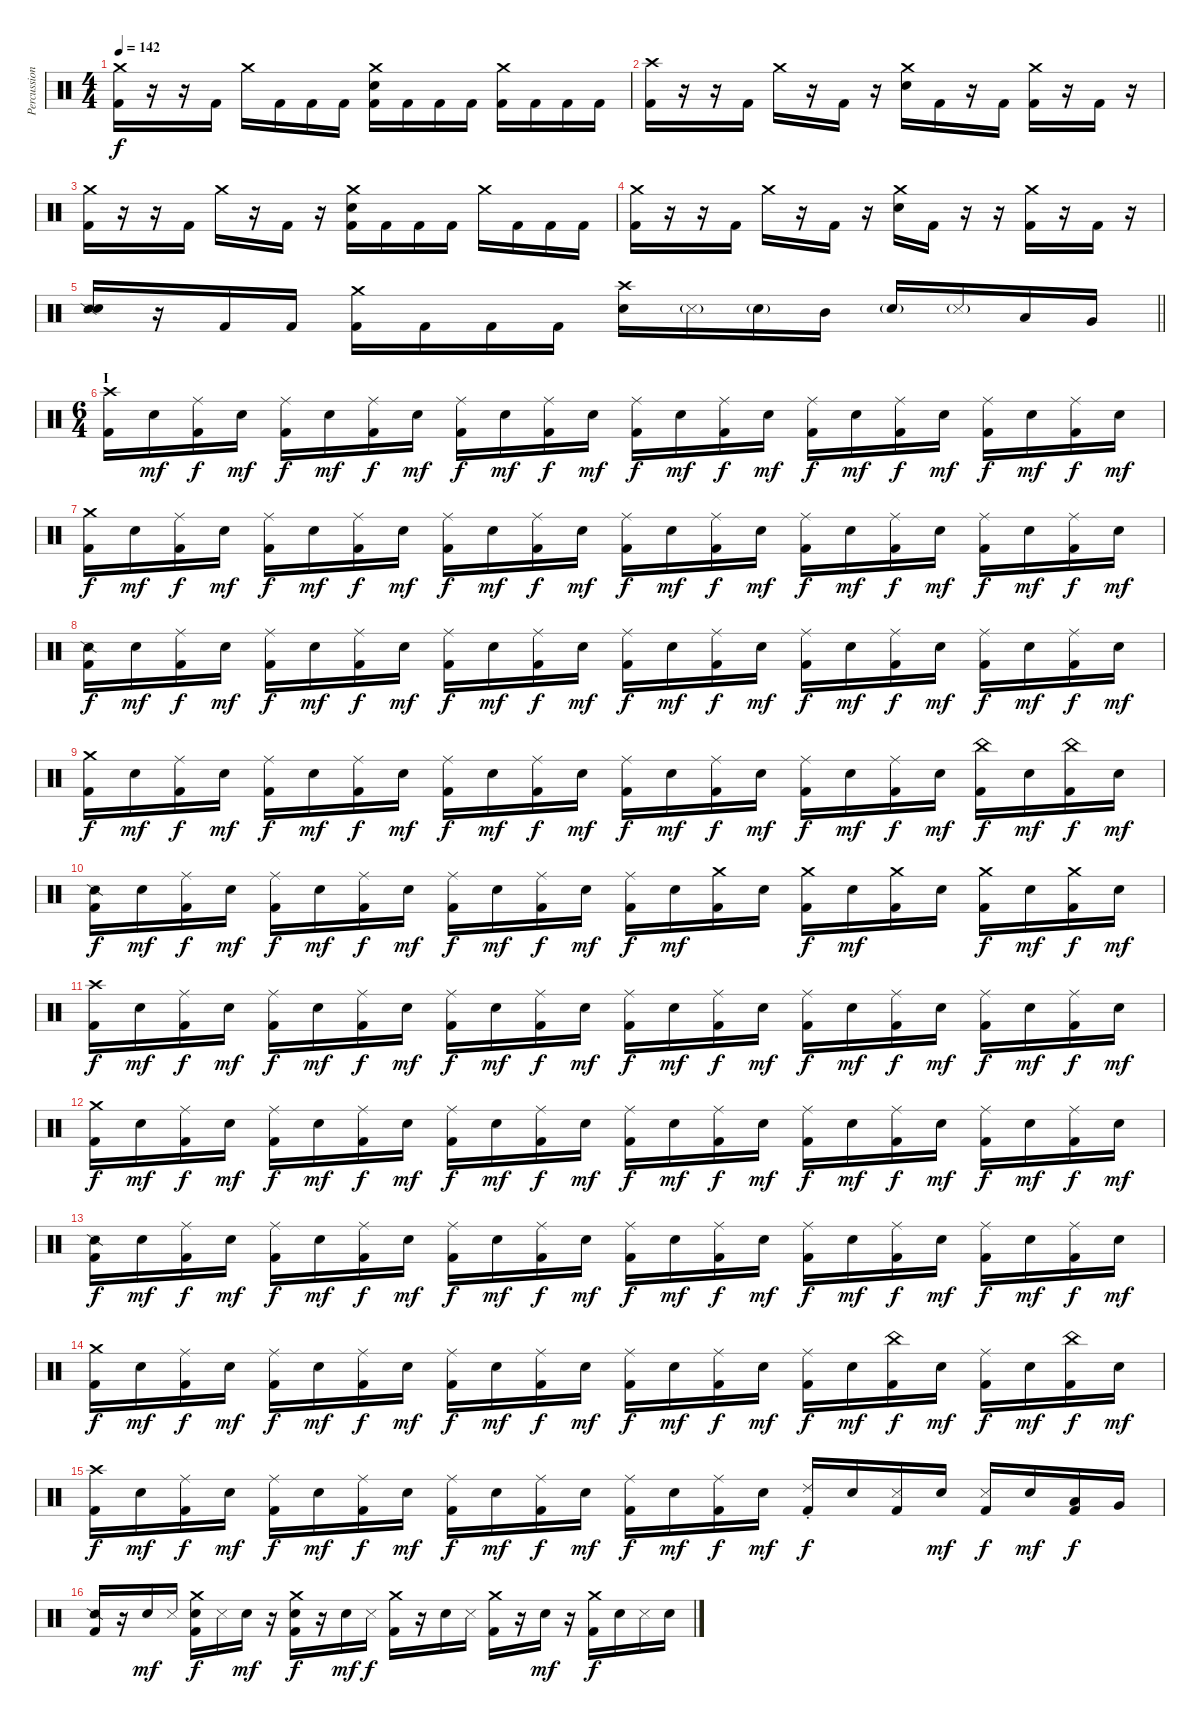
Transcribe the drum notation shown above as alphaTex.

\track ("Percussion" "Percussion") {instrument percussion}
\staff {score}
\articulation defaults
\ts (4 4)
\tempo 142
\clef neutral
\ks c
("Crash medium (hit)" "Kick (hit) 2").16{dy f} r.16 r.16 "Kick (hit) 2".16 "Crash medium (hit)".16 "Kick (hit) 2".16 "Kick (hit) 2".16 "Kick (hit) 2".16 ("Crash medium (hit)" "Snare (hit) 2" "Kick (hit) 2").16 "Kick (hit) 2".16 "Kick (hit) 2".16 "Kick (hit) 2".16 ("Crash medium (hit)" "Kick (hit) 2").16 "Kick (hit) 2".16 "Kick (hit) 2".16 "Kick (hit) 2".16 |
("Crash high (hit)" "Kick (hit) 2").16 r.16 r.16 "Kick (hit) 2".16 "Crash medium (hit)".16 r.16 "Kick (hit) 2".16 r.16 ("Crash medium (hit)" "Snare (hit) 2").16 "Kick (hit) 2".16 r.16 "Kick (hit) 2".16 ("Crash medium (hit)" "Kick (hit) 2").16 r.16 "Kick (hit) 2".16 r.16 |
("Crash medium (hit)" "Kick (hit) 2").16 r.16 r.16 "Kick (hit) 2".16 "Crash medium (hit)".16 r.16 "Kick (hit) 2".16 r.16 ("Crash medium (hit)" "Snare (hit) 2" "Kick (hit) 2").16 "Kick (hit) 2".16 "Kick (hit) 2".16 "Kick (hit) 2".16 "Crash medium (hit)".16 "Kick (hit) 2".16 "Kick (hit) 2".16 "Kick (hit) 2".16 |
("Crash medium (hit)" "Kick (hit) 2").16 r.16 r.16 "Kick (hit) 2".16 "Crash medium (hit)".16 r.16 "Kick (hit) 2".16 r.16 ("Crash medium (hit)" "Snare (hit) 2").16 "Kick (hit) 2".16 r.16 r.16 ("Crash medium (hit)" "Kick (hit) 2").16 r.16 "Kick (hit) 2".16 r.16 |
\barLineRight lightlight
("Snare (side stick) 2" "Snare (hit) 2").16 r.16 "Kick (hit) 2".16 "Kick (hit) 2".16 ("Crash medium (hit)" "Kick (hit) 2").16 "Kick (hit) 2".16 "Kick (hit) 2".16 "Kick (hit) 2".16 ("Crash high (hit)" "Snare (hit) 2").16 "Metronome (hit)"{g}.16 "Snare (hit) 2"{g}.16 "Mid Tom (hit)".16 "Snare (hit) 2"{g}.16 "Metronome (hit)"{g}.16 "Low Tom (hit)".16 "Very Low Tom (hit)".16 |
\ts (6 4)
\section ("" "I")
("Crash high (hit)" "Kick (hit) 2").16 "Snare (hit) 2".16{dy mf} ("Ride (middle)" "Kick (hit) 2").16{dy f} "Snare (hit) 2".16{dy mf} ("Ride (middle)" "Kick (hit) 2").16{dy f} "Snare (hit) 2".16{dy mf} ("Ride (middle)" "Kick (hit) 2").16{dy f} "Snare (hit) 2".16{dy mf} ("Ride (middle)" "Kick (hit) 2").16{dy f} "Snare (hit) 2".16{dy mf} ("Ride (middle)" "Kick (hit) 2").16{dy f} "Snare (hit) 2".16{dy mf} ("Ride (middle)" "Kick (hit) 2").16{dy f} "Snare (hit) 2".16{dy mf} ("Ride (middle)" "Kick (hit) 2").16{dy f} "Snare (hit) 2".16{dy mf} ("Ride (middle)" "Kick (hit) 2").16{dy f} "Snare (hit) 2".16{dy mf} ("Ride (middle)" "Kick (hit) 2").16{dy f} "Snare (hit) 2".16{dy mf} ("Ride (middle)" "Kick (hit) 2").16{dy f} "Snare (hit) 2".16{dy mf} ("Ride (middle)" "Kick (hit) 2").16{dy f} "Snare (hit) 2".16{dy mf} |
("Crash medium (hit)" "Kick (hit) 2").16{dy f} "Snare (hit) 2".16{dy mf} ("Ride (middle)" "Kick (hit) 2").16{dy f} "Snare (hit) 2".16{dy mf} ("Ride (middle)" "Kick (hit) 2").16{dy f} "Snare (hit) 2".16{dy mf} ("Ride (middle)" "Kick (hit) 2").16{dy f} "Snare (hit) 2".16{dy mf} ("Ride (middle)" "Kick (hit) 2").16{dy f} "Snare (hit) 2".16{dy mf} ("Ride (middle)" "Kick (hit) 2").16{dy f} "Snare (hit) 2".16{dy mf} ("Ride (middle)" "Kick (hit) 2").16{dy f} "Snare (hit) 2".16{dy mf} ("Ride (middle)" "Kick (hit) 2").16{dy f} "Snare (hit) 2".16{dy mf} ("Ride (middle)" "Kick (hit) 2").16{dy f} "Snare (hit) 2".16{dy mf} ("Ride (middle)" "Kick (hit) 2").16{dy f} "Snare (hit) 2".16{dy mf} ("Ride (middle)" "Kick (hit) 2").16{dy f} "Snare (hit) 2".16{dy mf} ("Ride (middle)" "Kick (hit) 2").16{dy f} "Snare (hit) 2".16{dy mf} |
("Snare (side stick) 2" "Kick (hit) 2").16{dy f} "Snare (hit) 2".16{dy mf} ("Ride (middle)" "Kick (hit) 2").16{dy f} "Snare (hit) 2".16{dy mf} ("Ride (middle)" "Kick (hit) 2").16{dy f} "Snare (hit) 2".16{dy mf} ("Ride (middle)" "Kick (hit) 2").16{dy f} "Snare (hit) 2".16{dy mf} ("Ride (middle)" "Kick (hit) 2").16{dy f} "Snare (hit) 2".16{dy mf} ("Ride (middle)" "Kick (hit) 2").16{dy f} "Snare (hit) 2".16{dy mf} ("Ride (middle)" "Kick (hit) 2").16{dy f} "Snare (hit) 2".16{dy mf} ("Ride (middle)" "Kick (hit) 2").16{dy f} "Snare (hit) 2".16{dy mf} ("Ride (middle)" "Kick (hit) 2").16{dy f} "Snare (hit) 2".16{dy mf} ("Ride (middle)" "Kick (hit) 2").16{dy f} "Snare (hit) 2".16{dy mf} ("Ride (middle)" "Kick (hit) 2").16{dy f} "Snare (hit) 2".16{dy mf} ("Ride (middle)" "Kick (hit) 2").16{dy f} "Snare (hit) 2".16{dy mf} |
("Crash medium (hit)" "Kick (hit) 2").16{dy f} "Snare (hit) 2".16{dy mf} ("Ride (middle)" "Kick (hit) 2").16{dy f} "Snare (hit) 2".16{dy mf} ("Ride (middle)" "Kick (hit) 2").16{dy f} "Snare (hit) 2".16{dy mf} ("Ride (middle)" "Kick (hit) 2").16{dy f} "Snare (hit) 2".16{dy mf} ("Ride (middle)" "Kick (hit) 2").16{dy f} "Snare (hit) 2".16{dy mf} ("Ride (middle)" "Kick (hit) 2").16{dy f} "Snare (hit) 2".16{dy mf} ("Ride (middle)" "Kick (hit) 2").16{dy f} "Snare (hit) 2".16{dy mf} ("Ride (middle)" "Kick (hit) 2").16{dy f} "Snare (hit) 2".16{dy mf} ("Ride (middle)" "Kick (hit) 2").16{dy f} "Snare (hit) 2".16{dy mf} ("Ride (middle)" "Kick (hit) 2").16{dy f} "Snare (hit) 2".16{dy mf} ("China (hit)" "Kick (hit) 2").16{dy f} "Snare (hit) 2".16{dy mf} ("China (hit)" "Kick (hit) 2").16{dy f} "Snare (hit) 2".16{dy mf} |
("Snare (side stick) 2" "Kick (hit) 2").16{dy f} "Snare (hit) 2".16{dy mf} ("Ride (middle)" "Kick (hit) 2").16{dy f} "Snare (hit) 2".16{dy mf} ("Ride (middle)" "Kick (hit) 2").16{dy f} "Snare (hit) 2".16{dy mf} ("Ride (middle)" "Kick (hit) 2").16{dy f} "Snare (hit) 2".16{dy mf} ("Ride (middle)" "Kick (hit) 2").16{dy f} "Snare (hit) 2".16{dy mf} ("Ride (middle)" "Kick (hit) 2").16{dy f} "Snare (hit) 2".16{dy mf} ("Ride (middle)" "Kick (hit) 2").16{dy f} "Snare (hit) 2".16{dy mf} ("Crash medium (hit)" "Kick (hit) 2").16 "Snare (hit) 2".16 ("Crash medium (hit)" "Kick (hit) 2").16{dy f} "Snare (hit) 2".16{dy mf} ("Crash medium (hit)" "Kick (hit) 2").16 "Snare (hit) 2".16 ("Crash medium (hit)" "Kick (hit) 2").16{dy f} "Snare (hit) 2".16{dy mf} ("Crash medium (hit)" "Kick (hit) 2").16{dy f} "Snare (hit) 2".16{dy mf} |
("Crash high (hit)" "Kick (hit) 2").16{dy f} "Snare (hit) 2".16{dy mf} ("Ride (middle)" "Kick (hit) 2").16{dy f} "Snare (hit) 2".16{dy mf} ("Ride (middle)" "Kick (hit) 2").16{dy f} "Snare (hit) 2".16{dy mf} ("Ride (middle)" "Kick (hit) 2").16{dy f} "Snare (hit) 2".16{dy mf} ("Ride (middle)" "Kick (hit) 2").16{dy f} "Snare (hit) 2".16{dy mf} ("Ride (middle)" "Kick (hit) 2").16{dy f} "Snare (hit) 2".16{dy mf} ("Ride (middle)" "Kick (hit) 2").16{dy f} "Snare (hit) 2".16{dy mf} ("Ride (middle)" "Kick (hit) 2").16{dy f} "Snare (hit) 2".16{dy mf} ("Ride (middle)" "Kick (hit) 2").16{dy f} "Snare (hit) 2".16{dy mf} ("Ride (middle)" "Kick (hit) 2").16{dy f} "Snare (hit) 2".16{dy mf} ("Ride (middle)" "Kick (hit) 2").16{dy f} "Snare (hit) 2".16{dy mf} ("Ride (middle)" "Kick (hit) 2").16{dy f} "Snare (hit) 2".16{dy mf} |
("Crash medium (hit)" "Kick (hit) 2").16{dy f} "Snare (hit) 2".16{dy mf} ("Ride (middle)" "Kick (hit) 2").16{dy f} "Snare (hit) 2".16{dy mf} ("Ride (middle)" "Kick (hit) 2").16{dy f} "Snare (hit) 2".16{dy mf} ("Ride (middle)" "Kick (hit) 2").16{dy f} "Snare (hit) 2".16{dy mf} ("Ride (middle)" "Kick (hit) 2").16{dy f} "Snare (hit) 2".16{dy mf} ("Ride (middle)" "Kick (hit) 2").16{dy f} "Snare (hit) 2".16{dy mf} ("Ride (middle)" "Kick (hit) 2").16{dy f} "Snare (hit) 2".16{dy mf} ("Ride (middle)" "Kick (hit) 2").16{dy f} "Snare (hit) 2".16{dy mf} ("Ride (middle)" "Kick (hit) 2").16{dy f} "Snare (hit) 2".16{dy mf} ("Ride (middle)" "Kick (hit) 2").16{dy f} "Snare (hit) 2".16{dy mf} ("Ride (middle)" "Kick (hit) 2").16{dy f} "Snare (hit) 2".16{dy mf} ("Ride (middle)" "Kick (hit) 2").16{dy f} "Snare (hit) 2".16{dy mf} |
("Snare (side stick) 2" "Kick (hit) 2").16{dy f} "Snare (hit) 2".16{dy mf} ("Ride (middle)" "Kick (hit) 2").16{dy f} "Snare (hit) 2".16{dy mf} ("Ride (middle)" "Kick (hit) 2").16{dy f} "Snare (hit) 2".16{dy mf} ("Ride (middle)" "Kick (hit) 2").16{dy f} "Snare (hit) 2".16{dy mf} ("Ride (middle)" "Kick (hit) 2").16{dy f} "Snare (hit) 2".16{dy mf} ("Ride (middle)" "Kick (hit) 2").16{dy f} "Snare (hit) 2".16{dy mf} ("Ride (middle)" "Kick (hit) 2").16{dy f} "Snare (hit) 2".16{dy mf} ("Ride (middle)" "Kick (hit) 2").16{dy f} "Snare (hit) 2".16{dy mf} ("Ride (middle)" "Kick (hit) 2").16{dy f} "Snare (hit) 2".16{dy mf} ("Ride (middle)" "Kick (hit) 2").16{dy f} "Snare (hit) 2".16{dy mf} ("Ride (middle)" "Kick (hit) 2").16{dy f} "Snare (hit) 2".16{dy mf} ("Ride (middle)" "Kick (hit) 2").16{dy f} "Snare (hit) 2".16{dy mf} |
("Crash medium (hit)" "Kick (hit) 2").16{dy f} "Snare (hit) 2".16{dy mf} ("Ride (middle)" "Kick (hit) 2").16{dy f} "Snare (hit) 2".16{dy mf} ("Ride (middle)" "Kick (hit) 2").16{dy f} "Snare (hit) 2".16{dy mf} ("Ride (middle)" "Kick (hit) 2").16{dy f} "Snare (hit) 2".16{dy mf} ("Ride (middle)" "Kick (hit) 2").16{dy f} "Snare (hit) 2".16{dy mf} ("Ride (middle)" "Kick (hit) 2").16{dy f} "Snare (hit) 2".16{dy mf} ("Ride (middle)" "Kick (hit) 2").16{dy f} "Snare (hit) 2".16{dy mf} ("Ride (middle)" "Kick (hit) 2").16{dy f} "Snare (hit) 2".16{dy mf} ("Ride (middle)" "Kick (hit) 2").16{dy f} "Snare (hit) 2".16{dy mf} ("China (hit)" "Kick (hit) 2").16{dy f} "Snare (hit) 2".16{dy mf} ("Ride (middle)" "Kick (hit) 2").16{dy f} "Snare (hit) 2".16{dy mf} ("China (hit)" "Kick (hit) 2").16{dy f} "Snare (hit) 2".16{dy mf} |
("Crash high (hit)" "Kick (hit) 2").16{dy f} "Snare (hit) 2".16{dy mf} ("Ride (middle)" "Kick (hit) 2").16{dy f} "Snare (hit) 2".16{dy mf} ("Ride (middle)" "Kick (hit) 2").16{dy f} "Snare (hit) 2".16{dy mf} ("Ride (middle)" "Kick (hit) 2").16{dy f} "Snare (hit) 2".16{dy mf} ("Ride (middle)" "Kick (hit) 2").16{dy f} "Snare (hit) 2".16{dy mf} ("Ride (middle)" "Kick (hit) 2").16{dy f} "Snare (hit) 2".16{dy mf} ("Ride (middle)" "Kick (hit) 2").16{dy f} "Snare (hit) 2".16{dy mf} ("Ride (middle)" "Kick (hit) 2").16{dy f} "Snare (hit) 2".16{dy mf} ("Ride (choke) 2" "Kick (hit) 2").16{dy f} "Snare (hit) 2".16 ("Metronome (hit)" "Kick (hit) 2").16 "Snare (hit) 2".16{dy mf} ("Metronome (hit)" "Kick (hit) 2").16{dy f} "Snare (hit) 2".16{dy mf} ("Low Tom (hit)" "Kick (hit) 2").16{dy f} "Very Low Tom (hit)".16 |
("Snare (side stick) 2" "Kick (hit) 2").16 r.16 "Snare (hit) 2".16{dy mf} "Metronome (hit)".16 ("Crash medium (hit)" "Snare (hit) 2" "Kick (hit) 2").16{dy f} "Metronome (hit)".16 "Snare (hit) 2".16{dy mf} r.16 ("Crash medium (hit)" "Snare (hit) 2" "Kick (hit) 2").16{dy f} r.16 "Snare (hit) 2".16{dy mf} "Metronome (hit)".16{dy f} ("Crash medium (hit)" "Kick (hit) 2").16 r.16 "Snare (hit) 2".16 "Metronome (hit)".16 ("Crash medium (hit)" "Kick (hit) 2").16 r.16 "Snare (hit) 2".16{dy mf} r.16 ("Crash medium (hit)" "Kick (hit) 2").16{dy f} "Snare (hit) 2".16 "Metronome (hit)".16 "Snare (hit) 2".16
